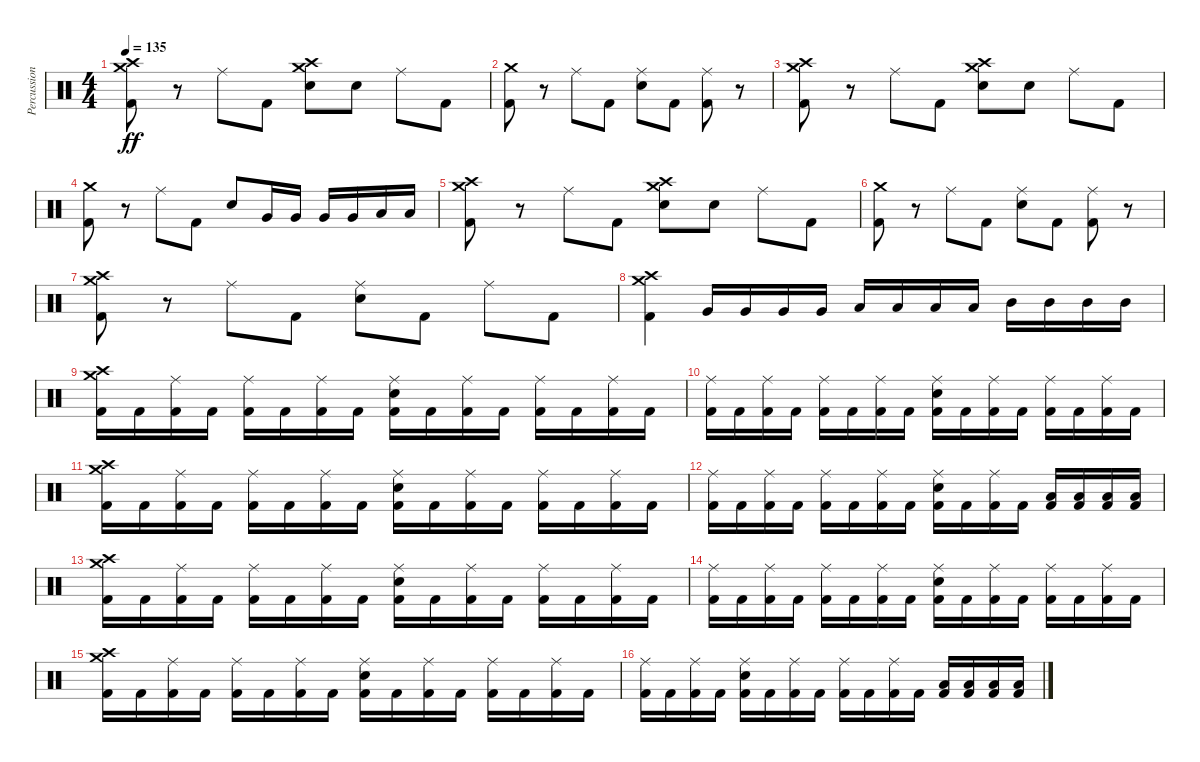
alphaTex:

\track ("Percussion" "Percussion") {instrument percussion}
\staff {score}
\articulation defaults
\ts (4 4)
\tempo 135
\clef neutral
\ks c
("Kick (hit) 2" "Crash medium (hit)" "Crash high (hit)").8{dy ff} r.8 "Ride (middle)".8 "Kick (hit) 2".8 ("Electric Snare (hit)" "Crash medium (hit)" "Crash high (hit)").8 "Electric Snare (hit)".8 "Ride (middle)".8 "Kick (hit) 2".8 |
("Kick (hit) 2" "Crash medium (hit)").8 r.8 "Ride (middle)".8 "Kick (hit) 2".8 ("Electric Snare (hit)" "Ride (middle)").8 "Kick (hit) 2".8 ("Kick (hit) 2" "Ride (middle)").8 r.8 |
("Kick (hit) 2" "Crash medium (hit)" "Crash high (hit)").8 r.8 "Ride (middle)".8 "Kick (hit) 2".8 ("Electric Snare (hit)" "Crash medium (hit)" "Crash high (hit)").8 "Electric Snare (hit)".8 "Ride (middle)".8 "Kick (hit) 2".8 |
("Kick (hit) 2" "Crash medium (hit)").8 r.8 "Ride (middle)".8 "Kick (hit) 2".8 "Electric Snare (hit)".8 "Very Low Tom (hit)".16 "Very Low Tom (hit)".16 "Very Low Tom (hit)".16 "Very Low Tom (hit)".16 "Low Tom (hit)".16 "Low Tom (hit)".16 |
("Kick (hit) 2" "Crash medium (hit)" "Crash high (hit)").8 r.8 "Ride (middle)".8 "Kick (hit) 2".8 ("Electric Snare (hit)" "Crash medium (hit)" "Crash high (hit)").8 "Electric Snare (hit)".8 "Ride (middle)".8 "Kick (hit) 2".8 |
("Kick (hit) 2" "Crash medium (hit)").8 r.8 "Ride (middle)".8 "Kick (hit) 2".8 ("Electric Snare (hit)" "Ride (middle)").8 "Kick (hit) 2".8 ("Kick (hit) 2" "Ride (middle)").8 r.8 |
("Kick (hit) 2" "Crash medium (hit)" "Crash high (hit)").8 r.8 "Ride (middle)".8 "Kick (hit) 2".8 ("Electric Snare (hit)" "Ride (middle)").8 "Kick (hit) 2".8 "Ride (middle)".8 "Kick (hit) 2".8 |
("Kick (hit) 2" "Crash medium (hit)" "Crash high (hit)").4 "Very Low Tom (hit)".16 "Very Low Tom (hit)".16 "Very Low Tom (hit)".16 "Very Low Tom (hit)".16 "Low Tom (hit)".16 "Low Tom (hit)".16 "Low Tom (hit)".16 "Low Tom (hit)".16 "Mid Tom (hit)".16 "Mid Tom (hit)".16 "Mid Tom (hit)".16 "Mid Tom (hit)".16 |
("Kick (hit) 2" "Crash medium (hit)" "Crash high (hit)").16 "Kick (hit) 2".16 ("Kick (hit) 2" "Ride (middle)").16 "Kick (hit) 2".16 ("Kick (hit) 2" "Ride (middle)").16 "Kick (hit) 2".16 ("Kick (hit) 2" "Ride (middle)").16 "Kick (hit) 2".16 ("Kick (hit) 2" "Electric Snare (hit)" "Ride (middle)").16 "Kick (hit) 2".16 ("Kick (hit) 2" "Ride (middle)").16 "Kick (hit) 2".16 ("Kick (hit) 2" "Ride (middle)").16 "Kick (hit) 2".16 ("Kick (hit) 2" "Ride (middle)").16 "Kick (hit) 2".16 |
("Kick (hit) 2" "Ride (middle)").16 "Kick (hit) 2".16 ("Kick (hit) 2" "Ride (middle)").16 "Kick (hit) 2".16 ("Kick (hit) 2" "Ride (middle)").16 "Kick (hit) 2".16 ("Kick (hit) 2" "Ride (middle)").16 "Kick (hit) 2".16 ("Kick (hit) 2" "Electric Snare (hit)" "Ride (middle)").16 "Kick (hit) 2".16 ("Kick (hit) 2" "Ride (middle)").16 "Kick (hit) 2".16 ("Kick (hit) 2" "Ride (middle)").16 "Kick (hit) 2".16 ("Kick (hit) 2" "Ride (middle)").16 "Kick (hit) 2".16 |
("Kick (hit) 2" "Crash medium (hit)" "Crash high (hit)").16 "Kick (hit) 2".16 ("Kick (hit) 2" "Ride (middle)").16 "Kick (hit) 2".16 ("Kick (hit) 2" "Ride (middle)").16 "Kick (hit) 2".16 ("Kick (hit) 2" "Ride (middle)").16 "Kick (hit) 2".16 ("Kick (hit) 2" "Electric Snare (hit)" "Ride (middle)").16 "Kick (hit) 2".16 ("Kick (hit) 2" "Ride (middle)").16 "Kick (hit) 2".16 ("Kick (hit) 2" "Ride (middle)").16 "Kick (hit) 2".16 ("Kick (hit) 2" "Ride (middle)").16 "Kick (hit) 2".16 |
("Kick (hit) 2" "Ride (middle)").16 "Kick (hit) 2".16 ("Kick (hit) 2" "Ride (middle)").16 "Kick (hit) 2".16 ("Kick (hit) 2" "Ride (middle)").16 "Kick (hit) 2".16 ("Kick (hit) 2" "Ride (middle)").16 "Kick (hit) 2".16 ("Kick (hit) 2" "Electric Snare (hit)" "Ride (middle)").16 "Kick (hit) 2".16 ("Kick (hit) 2" "Ride (middle)").16 "Kick (hit) 2".16 ("Kick (hit) 2" "Low Tom (hit)").16 ("Kick (hit) 2" "Low Tom (hit)").16 ("Kick (hit) 2" "Low Tom (hit)").16 ("Kick (hit) 2" "Low Tom (hit)").16 |
("Kick (hit) 2" "Crash medium (hit)" "Crash high (hit)").16 "Kick (hit) 2".16 ("Kick (hit) 2" "Ride (middle)").16 "Kick (hit) 2".16 ("Kick (hit) 2" "Ride (middle)").16 "Kick (hit) 2".16 ("Kick (hit) 2" "Ride (middle)").16 "Kick (hit) 2".16 ("Kick (hit) 2" "Electric Snare (hit)" "Ride (middle)").16 "Kick (hit) 2".16 ("Kick (hit) 2" "Ride (middle)").16 "Kick (hit) 2".16 ("Kick (hit) 2" "Ride (middle)").16 "Kick (hit) 2".16 ("Kick (hit) 2" "Ride (middle)").16 "Kick (hit) 2".16 |
("Kick (hit) 2" "Ride (middle)").16 "Kick (hit) 2".16 ("Kick (hit) 2" "Ride (middle)").16 "Kick (hit) 2".16 ("Kick (hit) 2" "Ride (middle)").16 "Kick (hit) 2".16 ("Kick (hit) 2" "Ride (middle)").16 "Kick (hit) 2".16 ("Kick (hit) 2" "Electric Snare (hit)" "Ride (middle)").16 "Kick (hit) 2".16 ("Kick (hit) 2" "Ride (middle)").16 "Kick (hit) 2".16 ("Kick (hit) 2" "Ride (middle)").16 "Kick (hit) 2".16 ("Kick (hit) 2" "Ride (middle)").16 "Kick (hit) 2".16 |
("Kick (hit) 2" "Crash medium (hit)" "Crash high (hit)").16 "Kick (hit) 2".16 ("Kick (hit) 2" "Ride (middle)").16 "Kick (hit) 2".16 ("Kick (hit) 2" "Ride (middle)").16 "Kick (hit) 2".16 ("Kick (hit) 2" "Ride (middle)").16 "Kick (hit) 2".16 ("Kick (hit) 2" "Electric Snare (hit)" "Ride (middle)").16 "Kick (hit) 2".16 ("Kick (hit) 2" "Ride (middle)").16 "Kick (hit) 2".16 ("Kick (hit) 2" "Ride (middle)").16 "Kick (hit) 2".16 ("Kick (hit) 2" "Ride (middle)").16 "Kick (hit) 2".16 |
("Kick (hit) 2" "Ride (middle)").16 "Kick (hit) 2".16 ("Kick (hit) 2" "Ride (middle)").16 "Kick (hit) 2".16 ("Kick (hit) 2" "Electric Snare (hit)" "Ride (middle)").16 "Kick (hit) 2".16 ("Kick (hit) 2" "Ride (middle)").16 "Kick (hit) 2".16 ("Kick (hit) 2" "Ride (middle)").16 "Kick (hit) 2".16 ("Kick (hit) 2" "Ride (middle)").16 "Kick (hit) 2".16 ("Kick (hit) 2" "Low Tom (hit)").16 ("Kick (hit) 2" "Low Tom (hit)").16 ("Kick (hit) 2" "Low Tom (hit)").16 ("Kick (hit) 2" "Low Tom (hit)").16
